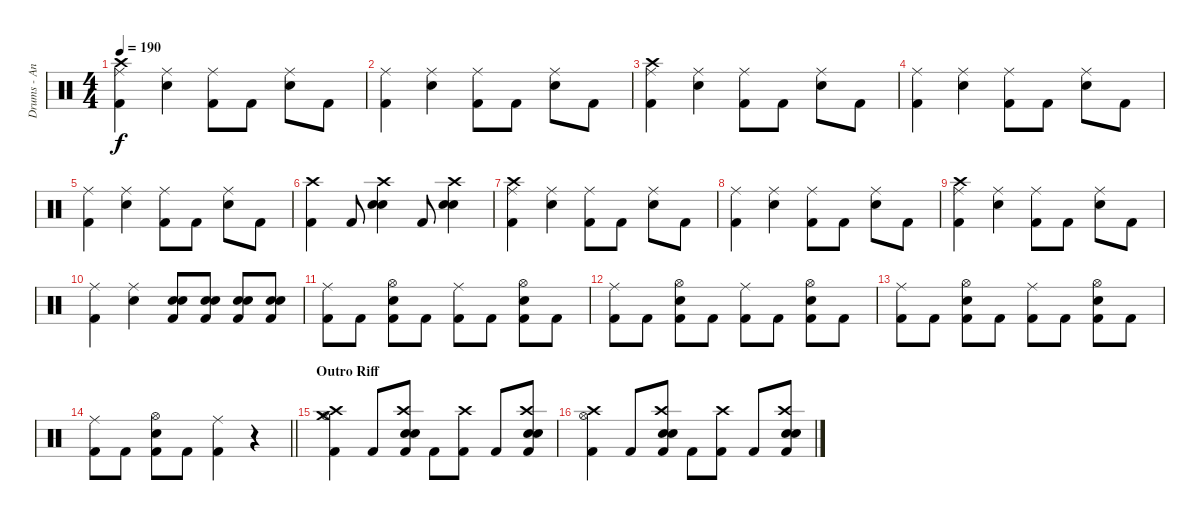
\track ("Drums - Anders Johansson" "Drums - An") {instrument percussion}
\staff {score}
\articulation defaults
\ts (4 4)
\tempo 190
\clef neutral
\ks c
("Ride (middle)" "Kick (hit) 2" "Crash high (hit)").4{dy f} ("Ride (middle)" "Snare (hit) 2").4 ("Ride (middle)" "Kick (hit) 2").8 "Kick (hit) 2".8 ("Ride (middle)" "Snare (hit) 2").8 "Kick (hit) 2".8 |
("Ride (middle)" "Kick (hit) 2").4 ("Ride (middle)" "Snare (hit) 2").4 ("Ride (middle)" "Kick (hit) 2").8 "Kick (hit) 2".8 ("Ride (middle)" "Snare (hit) 2").8 "Kick (hit) 2".8 |
("Ride (middle)" "Kick (hit) 2" "Crash high (hit)").4 ("Ride (middle)" "Snare (hit) 2").4 ("Ride (middle)" "Kick (hit) 2").8 "Kick (hit) 2".8 ("Ride (middle)" "Snare (hit) 2").8 "Kick (hit) 2".8 |
("Ride (middle)" "Kick (hit) 2").4 ("Ride (middle)" "Snare (hit) 2").4 ("Ride (middle)" "Kick (hit) 2").8 "Kick (hit) 2".8 ("Ride (middle)" "Snare (hit) 2").8 "Kick (hit) 2".8 |
("Ride (middle)" "Kick (hit) 2").4 ("Ride (middle)" "Snare (hit) 2").4 ("Ride (middle)" "Kick (hit) 2").8 "Kick (hit) 2".8 ("Ride (middle)" "Snare (hit) 2").8 "Kick (hit) 2".8 |
("Kick (hit) 2" "Crash high (hit)").4 "Kick (hit) 2".8 ("Electric Snare (hit)" "Snare (hit) 2" "Crash high (hit)").4 "Kick (hit) 2".8 ("Electric Snare (hit)" "Snare (hit) 2" "Crash high (hit)").4 |
("Ride (middle)" "Kick (hit) 2" "Crash high (hit)").4 ("Ride (middle)" "Snare (hit) 2").4 ("Ride (middle)" "Kick (hit) 2").8 "Kick (hit) 2".8 ("Ride (middle)" "Snare (hit) 2").8 "Kick (hit) 2".8 |
("Ride (middle)" "Kick (hit) 2").4 ("Ride (middle)" "Snare (hit) 2").4 ("Ride (middle)" "Kick (hit) 2").8 "Kick (hit) 2".8 ("Ride (middle)" "Snare (hit) 2").8 "Kick (hit) 2".8 |
("Ride (middle)" "Kick (hit) 2" "Crash high (hit)").4 ("Ride (middle)" "Snare (hit) 2").4 ("Ride (middle)" "Kick (hit) 2").8 "Kick (hit) 2".8 ("Ride (middle)" "Snare (hit) 2").8 "Kick (hit) 2".8 |
("Ride (middle)" "Kick (hit) 2").4 ("Ride (middle)" "Snare (hit) 2").4 ("Electric Snare (hit)" "Snare (hit) 2" "Kick (hit) 2").8 ("Electric Snare (hit)" "Snare (hit) 2" "Kick (hit) 2").8 ("Electric Snare (hit)" "Snare (hit) 2" "Kick (hit) 2").8 ("Electric Snare (hit)" "Snare (hit) 2" "Kick (hit) 2").8 |
("Ride (middle)" "Kick (hit) 2").8 "Kick (hit) 2".8 ("Hi-Hat (open)" "Snare (hit) 2" "Kick (hit) 2").8 "Kick (hit) 2".8 ("Ride (middle)" "Kick (hit) 2").8 "Kick (hit) 2".8 ("Hi-Hat (open)" "Snare (hit) 2" "Kick (hit) 2").8 "Kick (hit) 2".8 |
("Ride (middle)" "Kick (hit) 2").8 "Kick (hit) 2".8 ("Hi-Hat (open)" "Snare (hit) 2" "Kick (hit) 2").8 "Kick (hit) 2".8 ("Ride (middle)" "Kick (hit) 2").8 "Kick (hit) 2".8 ("Hi-Hat (open)" "Snare (hit) 2" "Kick (hit) 2").8 "Kick (hit) 2".8 |
("Ride (middle)" "Kick (hit) 2").8 "Kick (hit) 2".8 ("Hi-Hat (open)" "Snare (hit) 2" "Kick (hit) 2").8 "Kick (hit) 2".8 ("Ride (middle)" "Kick (hit) 2").8 "Kick (hit) 2".8 ("Hi-Hat (open)" "Snare (hit) 2" "Kick (hit) 2").8 "Kick (hit) 2".8 |
\barLineRight lightlight
("Ride (middle)" "Kick (hit) 2").8 "Kick (hit) 2".8 ("Hi-Hat (open)" "Snare (hit) 2" "Kick (hit) 2").8 "Kick (hit) 2".8 ("Ride (middle)" "Kick (hit) 2").4 r.4 |
\section ("" "Outro Riff")
("Hi-Hat (open)" "Kick (hit) 2" "Crash medium (hit)" "Crash high (hit)").4 "Kick (hit) 2".8 ("Electric Snare (hit)" "Snare (hit) 2" "Kick (hit) 2" "Crash high (hit)").8 "Kick (hit) 2".8 ("Kick (hit) 2" "Crash high (hit)").8 "Kick (hit) 2".8 ("Electric Snare (hit)" "Snare (hit) 2" "Kick (hit) 2" "Crash high (hit)").8 |
("Hi-Hat (open)" "Kick (hit) 2" "Crash high (hit)").4 "Kick (hit) 2".8 ("Electric Snare (hit)" "Snare (hit) 2" "Kick (hit) 2" "Crash high (hit)").8 "Kick (hit) 2".8 ("Kick (hit) 2" "Crash high (hit)").8 "Kick (hit) 2".8 ("Electric Snare (hit)" "Snare (hit) 2" "Kick (hit) 2" "Crash high (hit)").8
